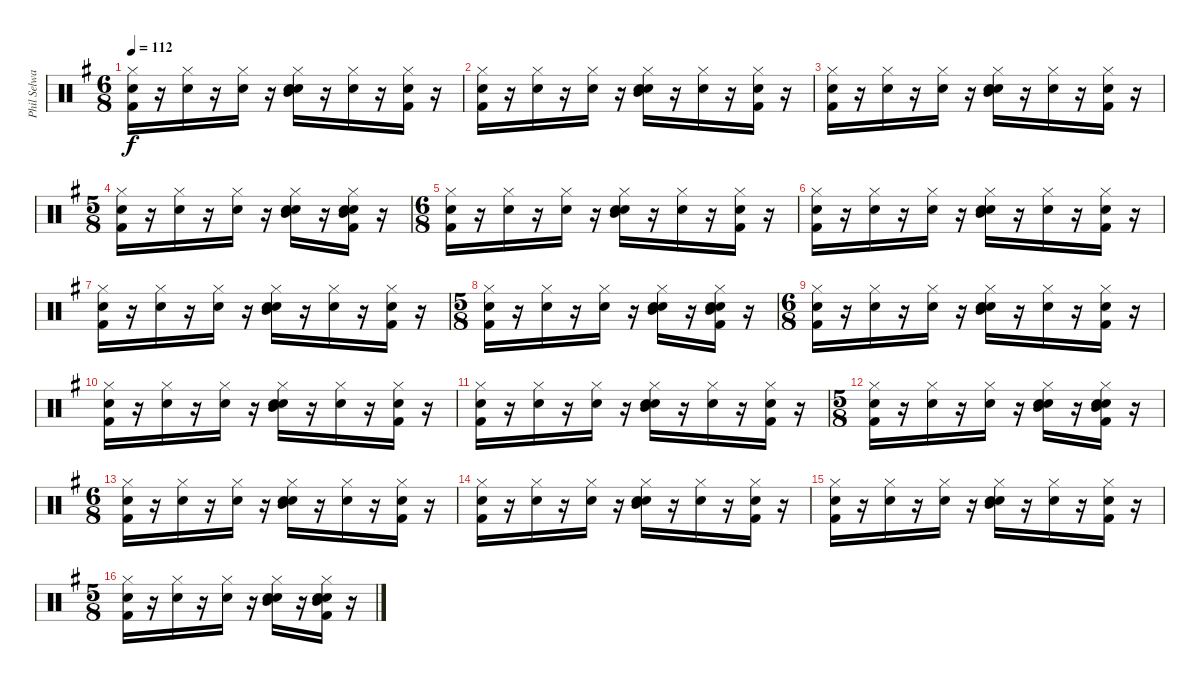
\track ("Phil Selway" "Phil Selwa") {instrument percussion}
\staff {score}
\articulation defaults
\ts (6 8)
\tempo 112
\clef neutral
\ks g
("Hi-Hat (closed)" "Kick (hit) 2" "Snare (hit) 2").16{dy f} r.16 ("Hi-Hat (closed)" "Snare (hit) 2").16 r.16 ("Hi-Hat (closed)" "Snare (hit) 2").16 r.16 ("Hi-Hat (closed)" "Snare (hit) 2" "Mid Tom (hit)" "Electric Snare (hit)").16 r.16 ("Hi-Hat (closed)" "Snare (hit) 2").16 r.16 ("Hi-Hat (closed)" "Snare (hit) 2" "Kick (hit) 2").16 r.16 |
("Hi-Hat (closed)" "Kick (hit) 2" "Snare (hit) 2").16 r.16 ("Hi-Hat (closed)" "Snare (hit) 2").16 r.16 ("Hi-Hat (closed)" "Snare (hit) 2").16 r.16 ("Hi-Hat (closed)" "Snare (hit) 2" "Mid Tom (hit)" "Electric Snare (hit)").16 r.16 ("Hi-Hat (closed)" "Snare (hit) 2").16 r.16 ("Hi-Hat (closed)" "Snare (hit) 2" "Kick (hit) 2").16 r.16 |
("Hi-Hat (closed)" "Kick (hit) 2" "Snare (hit) 2").16 r.16 ("Hi-Hat (closed)" "Snare (hit) 2").16 r.16 ("Hi-Hat (closed)" "Snare (hit) 2").16 r.16 ("Hi-Hat (closed)" "Snare (hit) 2" "Mid Tom (hit)" "Electric Snare (hit)").16 r.16 ("Hi-Hat (closed)" "Snare (hit) 2").16 r.16 ("Hi-Hat (closed)" "Snare (hit) 2" "Kick (hit) 2").16 r.16 |
\ts (5 8)
("Hi-Hat (closed)" "Snare (hit) 2" "Kick (hit) 2").16 r.16 ("Hi-Hat (closed)" "Snare (hit) 2").16 r.16 ("Hi-Hat (closed)" "Snare (hit) 2").16 r.16 ("Hi-Hat (closed)" "Snare (hit) 2" "Mid Tom (hit)" "Electric Snare (hit)").16 r.16 ("Hi-Hat (closed)" "Snare (hit) 2" "Kick (hit) 2" "Mid Tom (hit)" "Electric Snare (hit)").16 r.16 |
\ts (6 8)
("Hi-Hat (closed)" "Kick (hit) 2" "Snare (hit) 2").16 r.16 ("Hi-Hat (closed)" "Snare (hit) 2").16 r.16 ("Hi-Hat (closed)" "Snare (hit) 2").16 r.16 ("Hi-Hat (closed)" "Snare (hit) 2" "Mid Tom (hit)" "Electric Snare (hit)").16 r.16 ("Hi-Hat (closed)" "Snare (hit) 2").16 r.16 ("Hi-Hat (closed)" "Snare (hit) 2" "Kick (hit) 2").16 r.16 |
("Hi-Hat (closed)" "Kick (hit) 2" "Snare (hit) 2").16 r.16 ("Hi-Hat (closed)" "Snare (hit) 2").16 r.16 ("Hi-Hat (closed)" "Snare (hit) 2").16 r.16 ("Hi-Hat (closed)" "Snare (hit) 2" "Mid Tom (hit)" "Electric Snare (hit)").16 r.16 ("Hi-Hat (closed)" "Snare (hit) 2").16 r.16 ("Hi-Hat (closed)" "Snare (hit) 2" "Kick (hit) 2").16 r.16 |
("Hi-Hat (closed)" "Kick (hit) 2" "Snare (hit) 2").16 r.16 ("Hi-Hat (closed)" "Snare (hit) 2").16 r.16 ("Hi-Hat (closed)" "Snare (hit) 2").16 r.16 ("Hi-Hat (closed)" "Snare (hit) 2" "Mid Tom (hit)" "Electric Snare (hit)").16 r.16 ("Hi-Hat (closed)" "Snare (hit) 2").16 r.16 ("Hi-Hat (closed)" "Snare (hit) 2" "Kick (hit) 2").16 r.16 |
\ts (5 8)
("Hi-Hat (closed)" "Snare (hit) 2" "Kick (hit) 2").16 r.16 ("Hi-Hat (closed)" "Snare (hit) 2").16 r.16 ("Hi-Hat (closed)" "Snare (hit) 2").16 r.16 ("Hi-Hat (closed)" "Snare (hit) 2" "Mid Tom (hit)" "Electric Snare (hit)").16 r.16 ("Hi-Hat (closed)" "Snare (hit) 2" "Kick (hit) 2" "Mid Tom (hit)" "Electric Snare (hit)").16 r.16 |
\ts (6 8)
("Hi-Hat (closed)" "Kick (hit) 2" "Snare (hit) 2").16 r.16 ("Hi-Hat (closed)" "Snare (hit) 2").16 r.16 ("Hi-Hat (closed)" "Snare (hit) 2").16 r.16 ("Hi-Hat (closed)" "Snare (hit) 2" "Mid Tom (hit)" "Electric Snare (hit)").16 r.16 ("Hi-Hat (closed)" "Snare (hit) 2").16 r.16 ("Hi-Hat (closed)" "Snare (hit) 2" "Kick (hit) 2").16 r.16 |
("Hi-Hat (closed)" "Kick (hit) 2" "Snare (hit) 2").16 r.16 ("Hi-Hat (closed)" "Snare (hit) 2").16 r.16 ("Hi-Hat (closed)" "Snare (hit) 2").16 r.16 ("Hi-Hat (closed)" "Snare (hit) 2" "Mid Tom (hit)" "Electric Snare (hit)").16 r.16 ("Hi-Hat (closed)" "Snare (hit) 2").16 r.16 ("Hi-Hat (closed)" "Snare (hit) 2" "Kick (hit) 2").16 r.16 |
("Hi-Hat (closed)" "Kick (hit) 2" "Snare (hit) 2").16 r.16 ("Hi-Hat (closed)" "Snare (hit) 2").16 r.16 ("Hi-Hat (closed)" "Snare (hit) 2").16 r.16 ("Hi-Hat (closed)" "Snare (hit) 2" "Mid Tom (hit)" "Electric Snare (hit)").16 r.16 ("Hi-Hat (closed)" "Snare (hit) 2").16 r.16 ("Hi-Hat (closed)" "Snare (hit) 2" "Kick (hit) 2").16 r.16 |
\ts (5 8)
("Hi-Hat (closed)" "Snare (hit) 2" "Kick (hit) 2").16 r.16 ("Hi-Hat (closed)" "Snare (hit) 2").16 r.16 ("Hi-Hat (closed)" "Snare (hit) 2").16 r.16 ("Hi-Hat (closed)" "Snare (hit) 2" "Mid Tom (hit)" "Electric Snare (hit)").16 r.16 ("Hi-Hat (closed)" "Snare (hit) 2" "Kick (hit) 2" "Mid Tom (hit)" "Electric Snare (hit)").16 r.16 |
\ts (6 8)
("Hi-Hat (closed)" "Kick (hit) 2" "Snare (hit) 2").16 r.16 ("Hi-Hat (closed)" "Snare (hit) 2").16 r.16 ("Hi-Hat (closed)" "Snare (hit) 2").16 r.16 ("Hi-Hat (closed)" "Snare (hit) 2" "Mid Tom (hit)" "Electric Snare (hit)").16 r.16 ("Hi-Hat (closed)" "Snare (hit) 2").16 r.16 ("Hi-Hat (closed)" "Snare (hit) 2" "Kick (hit) 2").16 r.16 |
("Hi-Hat (closed)" "Kick (hit) 2" "Snare (hit) 2").16 r.16 ("Hi-Hat (closed)" "Snare (hit) 2").16 r.16 ("Hi-Hat (closed)" "Snare (hit) 2").16 r.16 ("Hi-Hat (closed)" "Snare (hit) 2" "Mid Tom (hit)" "Electric Snare (hit)").16 r.16 ("Hi-Hat (closed)" "Snare (hit) 2").16 r.16 ("Hi-Hat (closed)" "Snare (hit) 2" "Kick (hit) 2").16 r.16 |
("Hi-Hat (closed)" "Kick (hit) 2" "Snare (hit) 2").16 r.16 ("Hi-Hat (closed)" "Snare (hit) 2").16 r.16 ("Hi-Hat (closed)" "Snare (hit) 2").16 r.16 ("Hi-Hat (closed)" "Snare (hit) 2" "Mid Tom (hit)" "Electric Snare (hit)").16 r.16 ("Hi-Hat (closed)" "Snare (hit) 2").16 r.16 ("Hi-Hat (closed)" "Snare (hit) 2" "Kick (hit) 2").16 r.16 |
\ts (5 8)
("Hi-Hat (closed)" "Snare (hit) 2" "Kick (hit) 2").16 r.16 ("Hi-Hat (closed)" "Snare (hit) 2").16 r.16 ("Hi-Hat (closed)" "Snare (hit) 2").16 r.16 ("Hi-Hat (closed)" "Snare (hit) 2" "Mid Tom (hit)" "Electric Snare (hit)").16 r.16 ("Hi-Hat (closed)" "Snare (hit) 2" "Kick (hit) 2" "Mid Tom (hit)" "Electric Snare (hit)").16 r.16
